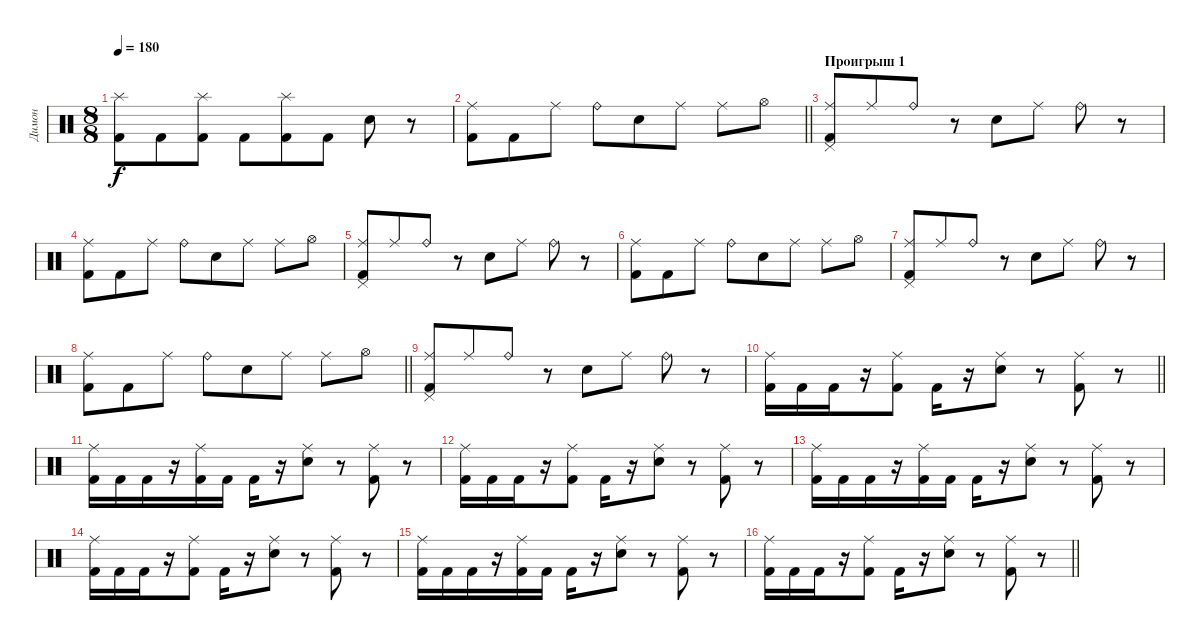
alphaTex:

\track ("Димон" "Димон") {instrument percussion}
\staff {score}
\articulation defaults
\ts (8 8)
\tempo 180
\clef neutral
\ks c
("Splash (hit)" "Kick (hit) 2").8{dy f} "Kick (hit) 2".8 ("Splash (hit)" "Kick (hit) 2").8 "Kick (hit) 2".8 ("Splash (hit)" "Kick (hit) 2").8 "Kick (hit) 2".8 "Electric Snare (hit)".8 r.8 |
\barLineRight lightlight
("Kick (hit) 2" "Ride (middle)").8 "Kick (hit) 2".8 "Ride (middle)".8 "Ride (bell)".8 "Electric Snare (hit)".8 "Ride (middle)".8 "Ride (middle)".8 "Hi-Hat (open)".8 |
\section ("" "Проигрыш 1")
("Pedal Hi-Hat (hit)" "Kick (hit) 2" "Ride (middle)").8 "Ride (middle)".8 "Ride (bell)".8 r.8 "Electric Snare (hit)".8 "Ride (middle)".8 "Ride (bell)".8 r.8 |
("Kick (hit) 2" "Ride (middle)").8 "Kick (hit) 2".8 "Ride (middle)".8 "Ride (bell)".8 "Electric Snare (hit)".8 "Ride (middle)".8 "Ride (middle)".8 "Hi-Hat (open)".8 |
("Pedal Hi-Hat (hit)" "Kick (hit) 2" "Ride (middle)").8 "Ride (middle)".8 "Ride (bell)".8 r.8 "Electric Snare (hit)".8 "Ride (middle)".8 "Ride (bell)".8 r.8 |
("Kick (hit) 2" "Ride (middle)").8 "Kick (hit) 2".8 "Ride (middle)".8 "Ride (bell)".8 "Electric Snare (hit)".8 "Ride (middle)".8 "Ride (middle)".8 "Hi-Hat (open)".8 |
("Pedal Hi-Hat (hit)" "Kick (hit) 2" "Ride (middle)").8 "Ride (middle)".8 "Ride (bell)".8 r.8 "Electric Snare (hit)".8 "Ride (middle)".8 "Ride (bell)".8 r.8 |
\barLineRight lightlight
("Kick (hit) 2" "Ride (middle)").8 "Kick (hit) 2".8 "Ride (middle)".8 "Ride (bell)".8 "Electric Snare (hit)".8 "Ride (middle)".8 "Ride (middle)".8 "Hi-Hat (open)".8 |
("Pedal Hi-Hat (hit)" "Kick (hit) 2" "Ride (middle)").8 "Ride (middle)".8 "Ride (bell)".8 r.8 "Electric Snare (hit)".8 "Ride (middle)".8 "Ride (bell)".8 r.8 |
\barLineRight lightlight
("Kick (hit) 2" "Ride (middle)").16 "Kick (hit) 2".16 "Kick (hit) 2".16 r.16 ("Kick (hit) 2" "Ride (middle)").8 "Kick (hit) 2".16 r.16 ("Electric Snare (hit)" "Ride (middle)").8 r.8 ("Kick (hit) 2" "Ride (middle)").8 r.8 |
("Kick (hit) 2" "Ride (middle)").16 "Kick (hit) 2".16 "Kick (hit) 2".16 r.16 ("Kick (hit) 2" "Ride (middle)").16 "Kick (hit) 2".16 "Kick (hit) 2".16 r.16 ("Electric Snare (hit)" "Ride (middle)").8 r.8 ("Kick (hit) 2" "Ride (middle)").8 r.8 |
("Kick (hit) 2" "Ride (middle)").16 "Kick (hit) 2".16 "Kick (hit) 2".16 r.16 ("Kick (hit) 2" "Ride (middle)").8 "Kick (hit) 2".16 r.16 ("Electric Snare (hit)" "Ride (middle)").8 r.8 ("Kick (hit) 2" "Ride (middle)").8 r.8 |
("Kick (hit) 2" "Ride (middle)").16 "Kick (hit) 2".16 "Kick (hit) 2".16 r.16 ("Kick (hit) 2" "Ride (middle)").16 "Kick (hit) 2".16 "Kick (hit) 2".16 r.16 ("Electric Snare (hit)" "Ride (middle)").8 r.8 ("Kick (hit) 2" "Ride (middle)").8 r.8 |
("Kick (hit) 2" "Ride (middle)").16 "Kick (hit) 2".16 "Kick (hit) 2".16 r.16 ("Kick (hit) 2" "Ride (middle)").8 "Kick (hit) 2".16 r.16 ("Electric Snare (hit)" "Ride (middle)").8 r.8 ("Kick (hit) 2" "Ride (middle)").8 r.8 |
("Kick (hit) 2" "Ride (middle)").16 "Kick (hit) 2".16 "Kick (hit) 2".16 r.16 ("Kick (hit) 2" "Ride (middle)").16 "Kick (hit) 2".16 "Kick (hit) 2".16 r.16 ("Electric Snare (hit)" "Ride (middle)").8 r.8 ("Kick (hit) 2" "Ride (middle)").8 r.8 |
\barLineRight lightlight
("Kick (hit) 2" "Ride (middle)").16 "Kick (hit) 2".16 "Kick (hit) 2".16 r.16 ("Kick (hit) 2" "Ride (middle)").8 "Kick (hit) 2".16 r.16 ("Electric Snare (hit)" "Ride (middle)").8 r.8 ("Kick (hit) 2" "Ride (middle)").8 r.8
